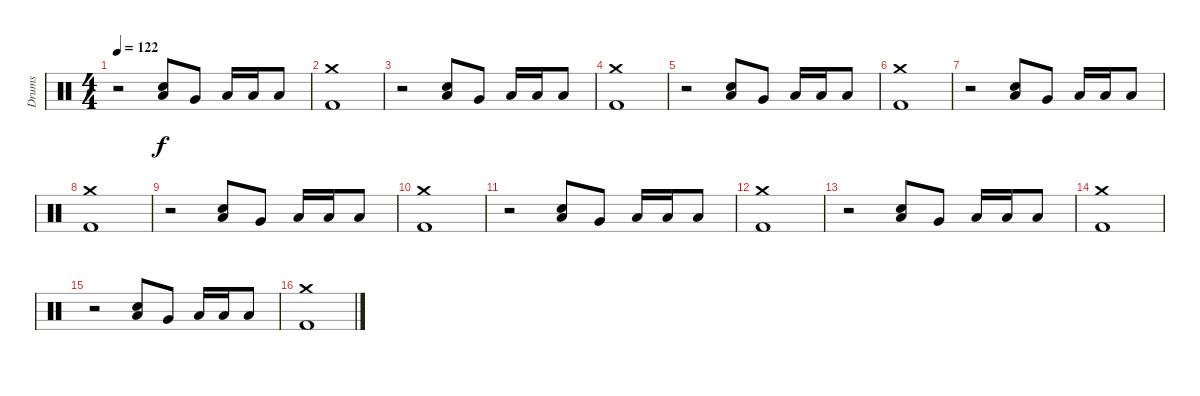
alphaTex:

\track ("Drums" "Drums") {instrument percussion}
\staff {score}
\articulation defaults
\ts (4 4)
\tempo 122
\clef neutral
\ks c
r.2{dy f} ("Low Tom (hit)" "Electric Snare (hit)").8 "Very Low Tom (hit)".8 "Low Tom (hit)".16 "Low Tom (hit)".16 "Low Tom (hit)".8 |
("Crash medium (hit)" "Kick (hit) 2").1 |
r.2 ("Low Tom (hit)" "Electric Snare (hit)").8 "Very Low Tom (hit)".8 "Low Tom (hit)".16 "Low Tom (hit)".16 "Low Tom (hit)".8 |
("Crash medium (hit)" "Kick (hit) 2").1 |
r.2 ("Low Tom (hit)" "Electric Snare (hit)").8 "Very Low Tom (hit)".8 "Low Tom (hit)".16 "Low Tom (hit)".16 "Low Tom (hit)".8 |
("Crash medium (hit)" "Kick (hit) 2").1 |
r.2 ("Low Tom (hit)" "Electric Snare (hit)").8 "Very Low Tom (hit)".8 "Low Tom (hit)".16 "Low Tom (hit)".16 "Low Tom (hit)".8 |
("Crash medium (hit)" "Kick (hit) 2").1 |
r.2 ("Low Tom (hit)" "Electric Snare (hit)").8 "Very Low Tom (hit)".8 "Low Tom (hit)".16 "Low Tom (hit)".16 "Low Tom (hit)".8 |
("Crash medium (hit)" "Kick (hit) 2").1 |
r.2 ("Low Tom (hit)" "Electric Snare (hit)").8 "Very Low Tom (hit)".8 "Low Tom (hit)".16 "Low Tom (hit)".16 "Low Tom (hit)".8 |
("Crash medium (hit)" "Kick (hit) 2").1 |
r.2 ("Low Tom (hit)" "Electric Snare (hit)").8 "Very Low Tom (hit)".8 "Low Tom (hit)".16 "Low Tom (hit)".16 "Low Tom (hit)".8 |
("Crash medium (hit)" "Kick (hit) 2").1 |
r.2 ("Low Tom (hit)" "Electric Snare (hit)").8 "Very Low Tom (hit)".8 "Low Tom (hit)".16 "Low Tom (hit)".16 "Low Tom (hit)".8 |
("Crash medium (hit)" "Kick (hit) 2").1
